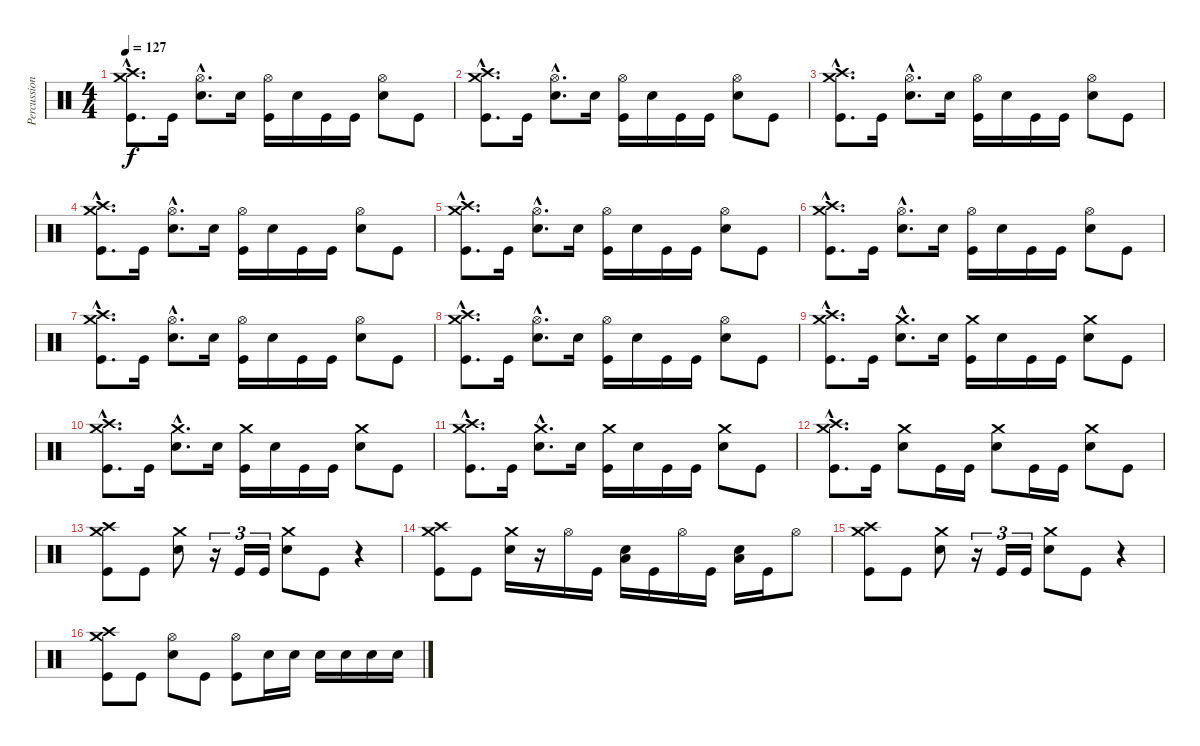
\track ("Percussions" "Percussion") {instrument percussion}
\staff {score}
\articulation defaults
\ts (4 4)
\tempo 127
\clef neutral
\ks c
("Crash high (hit)"{hac} "Crash medium (hit)"{hac} "Kick (hit)"{hac}).8{d dy f} "Kick (hit)".16 ("Hi-Hat (open)"{hac} "Snare (hit) 2"{hac}).8{d} "Snare (hit) 2".16 ("Hi-Hat (open)" "Kick (hit)").16 "Snare (hit) 2".16 "Kick (hit)".16 "Kick (hit)".16 ("Hi-Hat (open)" "Snare (hit) 2").8 "Kick (hit)".8 |
("Crash high (hit)"{hac} "Crash medium (hit)"{hac} "Kick (hit)"{hac}).8{d} "Kick (hit)".16 ("Hi-Hat (open)"{hac} "Snare (hit) 2"{hac}).8{d} "Snare (hit) 2".16 ("Hi-Hat (open)" "Kick (hit)").16 "Snare (hit) 2".16 "Kick (hit)".16 "Kick (hit)".16 ("Hi-Hat (open)" "Snare (hit) 2").8 "Kick (hit)".8 |
("Crash high (hit)"{hac} "Crash medium (hit)"{hac} "Kick (hit)"{hac}).8{d} "Kick (hit)".16 ("Hi-Hat (open)"{hac} "Snare (hit) 2"{hac}).8{d} "Snare (hit) 2".16 ("Hi-Hat (open)" "Kick (hit)").16 "Snare (hit) 2".16 "Kick (hit)".16 "Kick (hit)".16 ("Hi-Hat (open)" "Snare (hit) 2").8 "Kick (hit)".8 |
("Crash high (hit)"{hac} "Crash medium (hit)"{hac} "Kick (hit)"{hac}).8{d} "Kick (hit)".16 ("Hi-Hat (open)"{hac} "Snare (hit) 2"{hac}).8{d} "Snare (hit) 2".16 ("Hi-Hat (open)" "Kick (hit)").16 "Snare (hit) 2".16 "Kick (hit)".16 "Kick (hit)".16 ("Hi-Hat (open)" "Snare (hit) 2").8 "Kick (hit)".8 |
("Crash high (hit)"{hac} "Crash medium (hit)"{hac} "Kick (hit)"{hac}).8{d} "Kick (hit)".16 ("Hi-Hat (open)"{hac} "Snare (hit) 2"{hac}).8{d} "Snare (hit) 2".16 ("Hi-Hat (open)" "Kick (hit)").16 "Snare (hit) 2".16 "Kick (hit)".16 "Kick (hit)".16 ("Hi-Hat (open)" "Snare (hit) 2").8 "Kick (hit)".8 |
("Crash high (hit)"{hac} "Crash medium (hit)"{hac} "Kick (hit)"{hac}).8{d} "Kick (hit)".16 ("Hi-Hat (open)"{hac} "Snare (hit) 2"{hac}).8{d} "Snare (hit) 2".16 ("Hi-Hat (open)" "Kick (hit)").16 "Snare (hit) 2".16 "Kick (hit)".16 "Kick (hit)".16 ("Hi-Hat (open)" "Snare (hit) 2").8 "Kick (hit)".8 |
("Crash high (hit)"{hac} "Crash medium (hit)"{hac} "Kick (hit)"{hac}).8{d} "Kick (hit)".16 ("Hi-Hat (open)"{hac} "Snare (hit) 2"{hac}).8{d} "Snare (hit) 2".16 ("Hi-Hat (open)" "Kick (hit)").16 "Snare (hit) 2".16 "Kick (hit)".16 "Kick (hit)".16 ("Hi-Hat (open)" "Snare (hit) 2").8 "Kick (hit)".8 |
("Crash high (hit)"{hac} "Crash medium (hit)"{hac} "Kick (hit)"{hac}).8{d} "Kick (hit)".16 ("Hi-Hat (open)"{hac} "Snare (hit) 2"{hac}).8{d} "Snare (hit) 2".16 ("Hi-Hat (open)" "Kick (hit)").16 "Snare (hit) 2".16 "Kick (hit)".16 "Kick (hit)".16 ("Hi-Hat (open)" "Snare (hit) 2").8 "Kick (hit)".8 |
("Crash high (hit)"{hac} "Crash medium (hit)"{hac} "Kick (hit)"{hac}).8{d} "Kick (hit)".16 ("Crash medium (hit)"{hac} "Snare (hit) 2"{hac}).8{d} "Snare (hit) 2".16 ("Crash medium (hit)" "Kick (hit)").16 "Snare (hit) 2".16 "Kick (hit)".16 "Kick (hit)".16 ("Crash medium (hit)" "Snare (hit) 2").8 "Kick (hit)".8 |
("Crash high (hit)"{hac} "Crash medium (hit)"{hac} "Kick (hit)"{hac}).8{d} "Kick (hit)".16 ("Crash medium (hit)"{hac} "Snare (hit) 2"{hac}).8{d} "Snare (hit) 2".16 ("Crash medium (hit)" "Kick (hit)").16 "Snare (hit) 2".16 "Kick (hit)".16 "Kick (hit)".16 ("Crash medium (hit)" "Snare (hit) 2").8 "Kick (hit)".8 |
("Crash high (hit)"{hac} "Crash medium (hit)"{hac} "Kick (hit)"{hac}).8{d} "Kick (hit)".16 ("Crash medium (hit)"{hac} "Snare (hit) 2"{hac}).8{d} "Snare (hit) 2".16 ("Crash medium (hit)" "Kick (hit)").16 "Snare (hit) 2".16 "Kick (hit)".16 "Kick (hit)".16 ("Crash medium (hit)" "Snare (hit) 2").8 "Kick (hit)".8 |
("Crash high (hit)"{hac} "Crash medium (hit)"{hac} "Kick (hit)"{hac}).8{d} "Kick (hit)".16 ("Crash medium (hit)" "Snare (hit) 2").8 "Kick (hit)".16 "Kick (hit)".16 ("Crash medium (hit)" "Snare (hit) 2").8 "Kick (hit)".16 "Kick (hit)".16 ("Crash medium (hit)" "Snare (hit) 2").8 "Kick (hit)".8 |
("Crash high (hit)" "Crash medium (hit)" "Kick (hit)").8 "Kick (hit)".8 ("Crash medium (hit)" "Snare (hit) 2").8 r.16{tu (3 2)} "Kick (hit)".16{tu (3 2)} "Kick (hit)".16{tu (3 2)} ("Crash medium (hit)" "Snare (hit) 2").8 "Kick (hit)".8 r.4 |
("Crash high (hit)" "Crash medium (hit)" "Kick (hit)").8 "Kick (hit)".8 ("Crash medium (hit)" "Snare (hit) 2").16 r.16 "Hi-Hat (open)".16 "Kick (hit)".16 ("Low Tom (hit)" "Snare (hit) 2").16 "Kick (hit)".16 "Hi-Hat (open)".16 "Kick (hit)".16 ("Low Floor Tom (hit)" "Snare (hit) 2").16 "Kick (hit)".16 "Hi-Hat (open)".8 |
("Crash high (hit)" "Crash medium (hit)" "Kick (hit)").8 "Kick (hit)".8 ("Crash medium (hit)" "Snare (hit) 2").8 r.16{tu (3 2)} "Kick (hit)".16{tu (3 2)} "Kick (hit)".16{tu (3 2)} ("Crash medium (hit)" "Snare (hit) 2").8 "Kick (hit)".8 r.4 |
("Crash high (hit)" "Crash medium (hit)" "Kick (hit)").8 "Kick (hit)".8 ("Hi-Hat (open)" "Snare (hit) 2").8 "Kick (hit)".8 ("Hi-Hat (open)" "Kick (hit)").8 "Snare (hit) 2".16 "Snare (hit) 2".16 "Snare (hit) 2".16 "Snare (hit) 2".16 "Snare (hit) 2".16 "Snare (hit) 2".16
